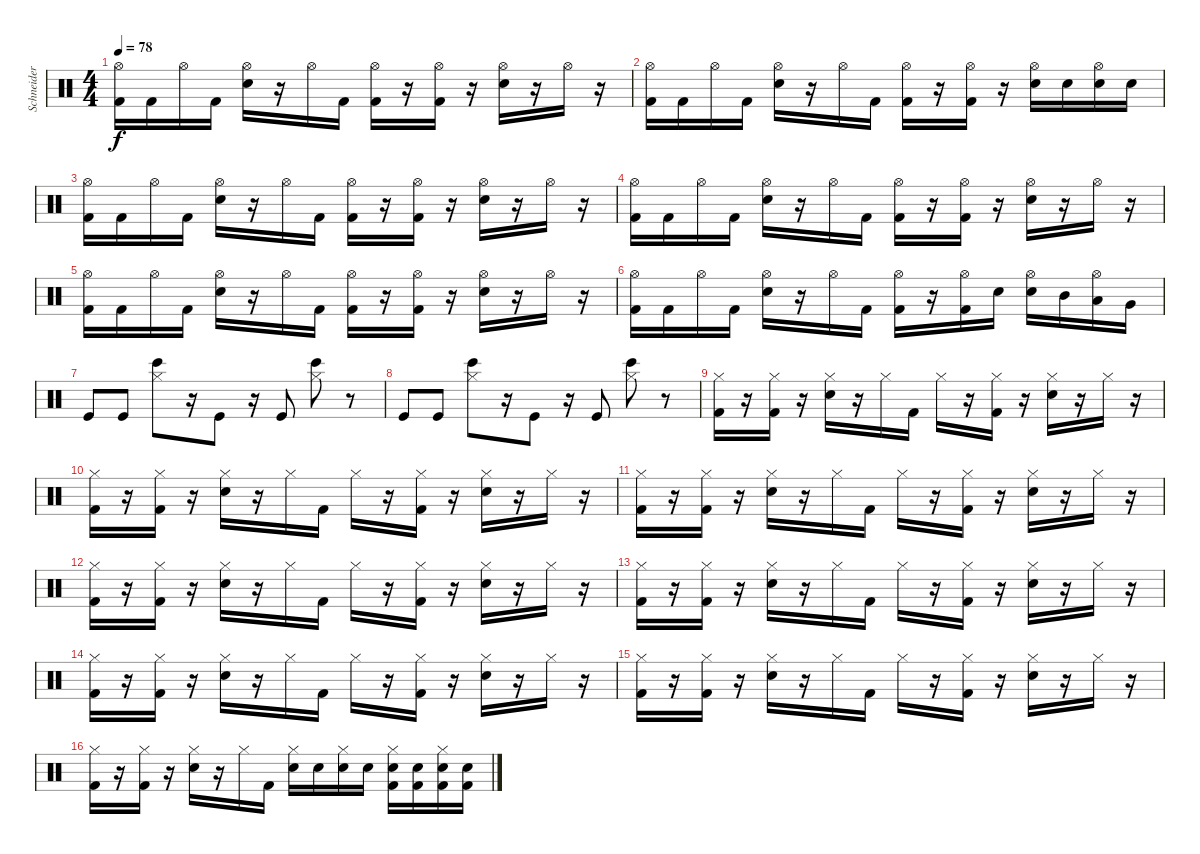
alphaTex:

\track ("Schneider - Drums" "Schneider ") {instrument percussion}
\staff {score}
\articulation defaults
\ts (4 4)
\tempo 78
\clef neutral
\ks c
("Hi-Hat (open)" "Kick (hit) 2").16{dy f} "Kick (hit) 2".16 "Hi-Hat (open)".16 "Kick (hit) 2".16 ("Hi-Hat (open)" "Snare (hit) 2").16 r.16 "Hi-Hat (open)".16 "Kick (hit) 2".16 ("Hi-Hat (open)" "Kick (hit) 2").16 r.16 ("Hi-Hat (open)" "Kick (hit) 2").16 r.16 ("Hi-Hat (open)" "Snare (hit) 2").16 r.16 "Hi-Hat (open)".16 r.16 |
("Hi-Hat (open)" "Kick (hit) 2").16 "Kick (hit) 2".16 "Hi-Hat (open)".16 "Kick (hit) 2".16 ("Hi-Hat (open)" "Snare (hit) 2").16 r.16 "Hi-Hat (open)".16 "Kick (hit) 2".16 ("Hi-Hat (open)" "Kick (hit) 2").16 r.16 ("Hi-Hat (open)" "Kick (hit) 2").16 r.16 ("Hi-Hat (open)" "Snare (hit) 2").16 "Snare (hit) 2".16 ("Hi-Hat (open)" "Snare (hit) 2").16 "Snare (hit) 2".16 |
("Hi-Hat (open)" "Kick (hit) 2").16 "Kick (hit) 2".16 "Hi-Hat (open)".16 "Kick (hit) 2".16 ("Hi-Hat (open)" "Snare (hit) 2").16 r.16 "Hi-Hat (open)".16 "Kick (hit) 2".16 ("Hi-Hat (open)" "Kick (hit) 2").16 r.16 ("Hi-Hat (open)" "Kick (hit) 2").16 r.16 ("Hi-Hat (open)" "Snare (hit) 2").16 r.16 "Hi-Hat (open)".16 r.16 |
("Hi-Hat (open)" "Kick (hit) 2").16 "Kick (hit) 2".16 "Hi-Hat (open)".16 "Kick (hit) 2".16 ("Hi-Hat (open)" "Snare (hit) 2").16 r.16 "Hi-Hat (open)".16 "Kick (hit) 2".16 ("Hi-Hat (open)" "Kick (hit) 2").16 r.16 ("Hi-Hat (open)" "Kick (hit) 2").16 r.16 ("Hi-Hat (open)" "Snare (hit) 2").16 r.16 "Hi-Hat (open)".16 r.16 |
("Hi-Hat (open)" "Kick (hit) 2").16 "Kick (hit) 2".16 "Hi-Hat (open)".16 "Kick (hit) 2".16 ("Hi-Hat (open)" "Snare (hit) 2").16 r.16 "Hi-Hat (open)".16 "Kick (hit) 2".16 ("Hi-Hat (open)" "Kick (hit) 2").16 r.16 ("Hi-Hat (open)" "Kick (hit) 2").16 r.16 ("Hi-Hat (open)" "Snare (hit) 2").16 r.16 "Hi-Hat (open)".16 r.16 |
("Hi-Hat (open)" "Kick (hit) 2").16 "Kick (hit) 2".16 "Hi-Hat (open)".16 "Kick (hit) 2".16 ("Hi-Hat (open)" "Snare (hit) 2").16 r.16 "Hi-Hat (open)".16 "Kick (hit) 2".16 ("Hi-Hat (open)" "Kick (hit) 2").16 r.16 ("Hi-Hat (open)" "Kick (hit) 2").16 "Snare (hit) 2".16 ("Hi-Hat (open)" "Snare (hit) 2").16 "Mid Tom (hit)".16 ("Hi-Hat (open)" "Low Tom (hit)").16 "Very Low Tom (hit)".16 |
"Kick (hit)".8 "Kick (hit)".8 ("Bongo High (hit)" "Hi-Hat (closed)").8 r.16 "Kick (hit)".8 r.16 "Kick (hit)".8 ("Bongo High (hit)" "Hi-Hat (closed)").8 r.8 |
"Kick (hit)".8 "Kick (hit)".8 ("Bongo High (hit)" "Hi-Hat (closed)").8 r.16 "Kick (hit)".8 r.16 "Kick (hit)".8 ("Bongo High (hit)" "Hi-Hat (closed)").8 r.8 |
("Hi-Hat (closed)" "Kick (hit) 2").16 r.16 ("Hi-Hat (closed)" "Kick (hit) 2").16 r.16 ("Hi-Hat (closed)" "Snare (hit) 2").16 r.16 "Hi-Hat (closed)".16 "Kick (hit) 2".16 "Hi-Hat (closed)".16 r.16 ("Hi-Hat (closed)" "Kick (hit) 2").16 r.16 ("Hi-Hat (closed)" "Snare (hit) 2").16 r.16 "Hi-Hat (closed)".16 r.16 |
("Hi-Hat (closed)" "Kick (hit) 2").16 r.16 ("Hi-Hat (closed)" "Kick (hit) 2").16 r.16 ("Hi-Hat (closed)" "Snare (hit) 2").16 r.16 "Hi-Hat (closed)".16 "Kick (hit) 2".16 "Hi-Hat (closed)".16 r.16 ("Hi-Hat (closed)" "Kick (hit) 2").16 r.16 ("Hi-Hat (closed)" "Snare (hit) 2").16 r.16 "Hi-Hat (closed)".16 r.16 |
("Hi-Hat (closed)" "Kick (hit) 2").16 r.16 ("Hi-Hat (closed)" "Kick (hit) 2").16 r.16 ("Hi-Hat (closed)" "Snare (hit) 2").16 r.16 "Hi-Hat (closed)".16 "Kick (hit) 2".16 "Hi-Hat (closed)".16 r.16 ("Hi-Hat (closed)" "Kick (hit) 2").16 r.16 ("Hi-Hat (closed)" "Snare (hit) 2").16 r.16 "Hi-Hat (closed)".16 r.16 |
("Hi-Hat (closed)" "Kick (hit) 2").16 r.16 ("Hi-Hat (closed)" "Kick (hit) 2").16 r.16 ("Hi-Hat (closed)" "Snare (hit) 2").16 r.16 "Hi-Hat (closed)".16 "Kick (hit) 2".16 "Hi-Hat (closed)".16 r.16 ("Hi-Hat (closed)" "Kick (hit) 2").16 r.16 ("Hi-Hat (closed)" "Snare (hit) 2").16 r.16 "Hi-Hat (closed)".16 r.16 |
("Hi-Hat (closed)" "Kick (hit) 2").16 r.16 ("Hi-Hat (closed)" "Kick (hit) 2").16 r.16 ("Hi-Hat (closed)" "Snare (hit) 2").16 r.16 "Hi-Hat (closed)".16 "Kick (hit) 2".16 "Hi-Hat (closed)".16 r.16 ("Hi-Hat (closed)" "Kick (hit) 2").16 r.16 ("Hi-Hat (closed)" "Snare (hit) 2").16 r.16 "Hi-Hat (closed)".16 r.16 |
("Hi-Hat (closed)" "Kick (hit) 2").16 r.16 ("Hi-Hat (closed)" "Kick (hit) 2").16 r.16 ("Hi-Hat (closed)" "Snare (hit) 2").16 r.16 "Hi-Hat (closed)".16 "Kick (hit) 2".16 "Hi-Hat (closed)".16 r.16 ("Hi-Hat (closed)" "Kick (hit) 2").16 r.16 ("Hi-Hat (closed)" "Snare (hit) 2").16 r.16 "Hi-Hat (closed)".16 r.16 |
("Hi-Hat (closed)" "Kick (hit) 2").16 r.16 ("Hi-Hat (closed)" "Kick (hit) 2").16 r.16 ("Hi-Hat (closed)" "Snare (hit) 2").16 r.16 "Hi-Hat (closed)".16 "Kick (hit) 2".16 "Hi-Hat (closed)".16 r.16 ("Hi-Hat (closed)" "Kick (hit) 2").16 r.16 ("Hi-Hat (closed)" "Snare (hit) 2").16 r.16 "Hi-Hat (closed)".16 r.16 |
("Hi-Hat (closed)" "Kick (hit) 2").16 r.16 ("Hi-Hat (closed)" "Kick (hit) 2").16 r.16 ("Hi-Hat (closed)" "Snare (hit) 2").16 r.16 "Hi-Hat (closed)".16 "Kick (hit) 2".16 ("Hi-Hat (closed)" "Snare (hit) 2").16 "Snare (hit) 2".16 ("Hi-Hat (closed)" "Snare (hit) 2").16 "Snare (hit) 2".16 ("Hi-Hat (closed)" "Snare (hit) 2" "Kick (hit) 2").16 ("Snare (hit) 2" "Kick (hit) 2").16 ("Hi-Hat (closed)" "Snare (hit) 2" "Kick (hit) 2").16 ("Snare (hit) 2" "Kick (hit) 2").16
